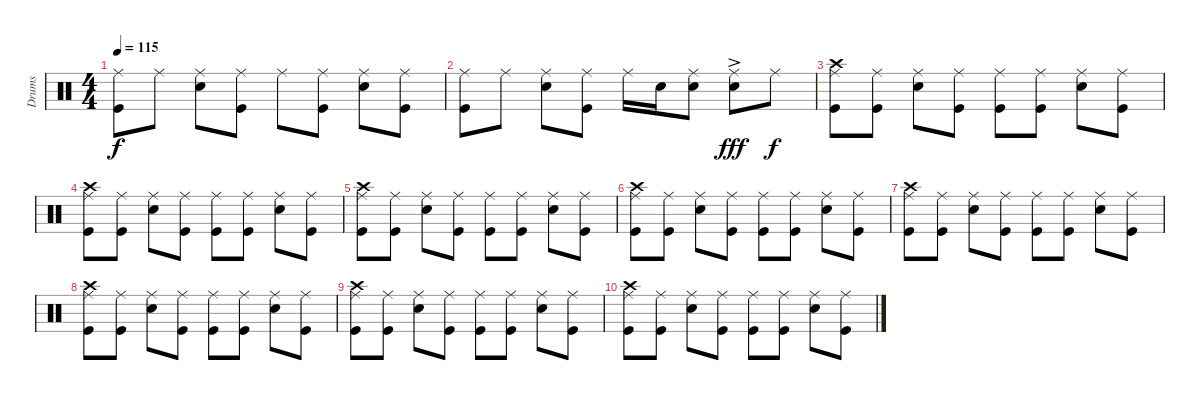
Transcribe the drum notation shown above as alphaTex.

\track ("Drums" "Drums") {instrument percussion}
\staff {score}
\articulation defaults
\ts (4 4)
\tempo 115
\clef neutral
\ks c
("Ride (middle)" "Kick (hit)").8{dy f} "Ride (middle)".8 ("Ride (middle)" "Snare (hit) 2").8 ("Ride (middle)" "Kick (hit)").8 "Ride (middle)".8 ("Ride (middle)" "Kick (hit)").8 ("Ride (middle)" "Snare (hit) 2").8 ("Ride (middle)" "Kick (hit)").8 |
("Ride (middle)" "Kick (hit)").8 "Ride (middle)".8 ("Ride (middle)" "Snare (hit) 2").8 ("Ride (middle)" "Kick (hit)").8 "Ride (middle)".16 "Snare (hit) 2".16 ("Ride (middle)" "Snare (hit) 2").8 ("Ride (middle)"{ac} "Snare (hit) 2").8{dy fff} "Ride (middle)".8{dy f} |
("Ride (middle)" "Crash high (hit)" "Kick (hit)").8 ("Ride (middle)" "Kick (hit)").8 ("Ride (middle)" "Snare (hit) 2").8 ("Ride (middle)" "Kick (hit)").8 ("Ride (middle)" "Kick (hit)").8 ("Ride (middle)" "Kick (hit)").8 ("Ride (middle)" "Snare (hit) 2").8 ("Ride (middle)" "Kick (hit)").8 |
("Ride (middle)" "Crash high (hit)" "Kick (hit)").8 ("Ride (middle)" "Kick (hit)").8 ("Ride (middle)" "Snare (hit) 2").8 ("Ride (middle)" "Kick (hit)").8 ("Ride (middle)" "Kick (hit)").8 ("Ride (middle)" "Kick (hit)").8 ("Ride (middle)" "Snare (hit) 2").8 ("Ride (middle)" "Kick (hit)").8 |
("Ride (middle)" "Crash high (hit)" "Kick (hit)").8 ("Ride (middle)" "Kick (hit)").8 ("Ride (middle)" "Snare (hit) 2").8 ("Ride (middle)" "Kick (hit)").8 ("Ride (middle)" "Kick (hit)").8 ("Ride (middle)" "Kick (hit)").8 ("Ride (middle)" "Snare (hit) 2").8 ("Ride (middle)" "Kick (hit)").8 |
("Ride (middle)" "Crash high (hit)" "Kick (hit)").8 ("Ride (middle)" "Kick (hit)").8 ("Ride (middle)" "Snare (hit) 2").8 ("Ride (middle)" "Kick (hit)").8 ("Ride (middle)" "Kick (hit)").8 ("Ride (middle)" "Kick (hit)").8 ("Ride (middle)" "Snare (hit) 2").8 ("Ride (middle)" "Kick (hit)").8 |
("Ride (middle)" "Crash high (hit)" "Kick (hit)").8 ("Ride (middle)" "Kick (hit)").8 ("Ride (middle)" "Snare (hit) 2").8 ("Ride (middle)" "Kick (hit)").8 ("Ride (middle)" "Kick (hit)").8 ("Ride (middle)" "Kick (hit)").8 ("Ride (middle)" "Snare (hit) 2").8 ("Ride (middle)" "Kick (hit)").8 |
("Ride (middle)" "Crash high (hit)" "Kick (hit)").8 ("Ride (middle)" "Kick (hit)").8 ("Ride (middle)" "Snare (hit) 2").8 ("Ride (middle)" "Kick (hit)").8 ("Ride (middle)" "Kick (hit)").8 ("Ride (middle)" "Kick (hit)").8 ("Ride (middle)" "Snare (hit) 2").8 ("Ride (middle)" "Kick (hit)").8 |
("Ride (middle)" "Crash high (hit)" "Kick (hit)").8 ("Ride (middle)" "Kick (hit)").8 ("Ride (middle)" "Snare (hit) 2").8 ("Ride (middle)" "Kick (hit)").8 ("Ride (middle)" "Kick (hit)").8 ("Ride (middle)" "Kick (hit)").8 ("Ride (middle)" "Snare (hit) 2").8 ("Ride (middle)" "Kick (hit)").8 |
("Ride (middle)" "Crash high (hit)" "Kick (hit)").8 ("Ride (middle)" "Kick (hit)").8 ("Ride (middle)" "Snare (hit) 2").8 ("Ride (middle)" "Kick (hit)").8 ("Ride (middle)" "Kick (hit)").8 ("Ride (middle)" "Kick (hit)").8 ("Ride (middle)" "Snare (hit) 2").8 ("Ride (middle)" "Kick (hit)").8
